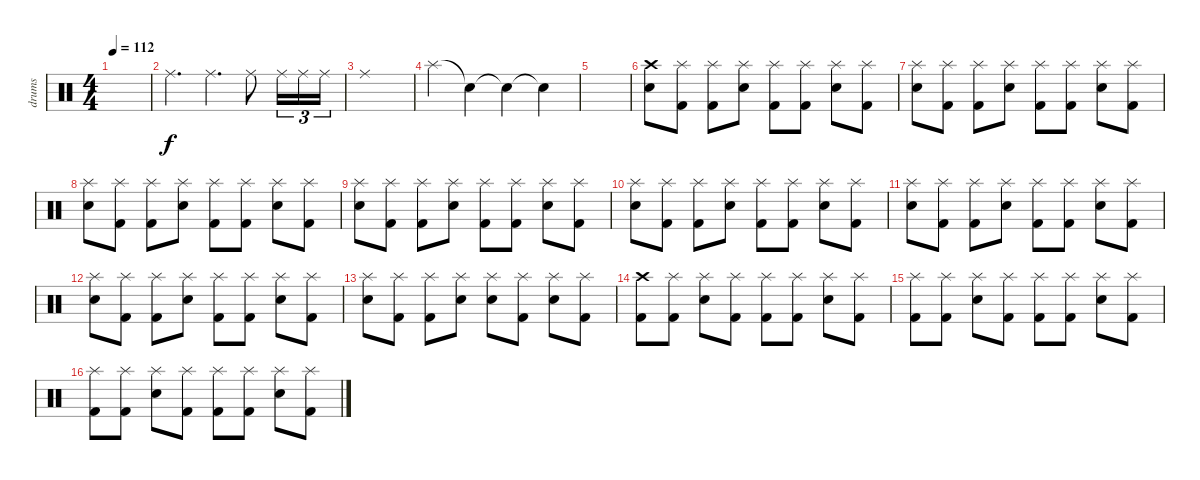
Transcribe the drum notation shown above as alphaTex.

\track ("drums" "drums") {instrument percussion}
\staff {score}
\articulation defaults
\ts (4 4)
\tempo 112
\clef neutral
\ks c
|
"Ride (middle)".4{d} "Ride (middle)".4{d} "Ride (middle)".8 "Ride (middle)".16{tu (3 2)} "Ride (middle)".16{tu (3 2)} "Ride (middle)".16{tu (3 2)} |
"Ride (middle)".1 |
"Splash (hit)".4 "Snare (hit)"{t}.4 "Snare (hit)"{t}.4 "Snare (hit)"{t}.4 |
|
("Crash high (hit)" "Snare (hit) 2").8{volume 10} ("Splash (hit)" "Kick (hit) 2").8 ("Splash (hit)" "Kick (hit) 2").8 ("Splash (hit)" "Snare (hit) 2").8 ("Splash (hit)" "Kick (hit) 2").8 ("Splash (hit)" "Kick (hit) 2").8 ("Splash (hit)" "Snare (hit) 2").8 ("Splash (hit)" "Kick (hit) 2").8 |
("Splash (hit)" "Snare (hit) 2").8 ("Splash (hit)" "Kick (hit) 2").8 ("Splash (hit)" "Kick (hit) 2").8 ("Splash (hit)" "Snare (hit) 2").8 ("Splash (hit)" "Kick (hit) 2").8 ("Splash (hit)" "Kick (hit) 2").8 ("Splash (hit)" "Snare (hit) 2").8 ("Splash (hit)" "Kick (hit) 2").8 |
("Splash (hit)" "Snare (hit) 2").8 ("Splash (hit)" "Kick (hit) 2").8 ("Splash (hit)" "Kick (hit) 2").8 ("Splash (hit)" "Snare (hit) 2").8 ("Splash (hit)" "Kick (hit) 2").8 ("Splash (hit)" "Kick (hit) 2").8 ("Splash (hit)" "Snare (hit) 2").8 ("Splash (hit)" "Kick (hit) 2").8 |
("Splash (hit)" "Snare (hit) 2").8 ("Splash (hit)" "Kick (hit) 2").8 ("Splash (hit)" "Kick (hit) 2").8 ("Splash (hit)" "Snare (hit) 2").8 ("Splash (hit)" "Kick (hit) 2").8 ("Splash (hit)" "Kick (hit) 2").8 ("Splash (hit)" "Snare (hit) 2").8 ("Splash (hit)" "Kick (hit) 2").8 |
("Splash (hit)" "Snare (hit) 2").8 ("Splash (hit)" "Kick (hit) 2").8 ("Splash (hit)" "Kick (hit) 2").8 ("Splash (hit)" "Snare (hit) 2").8 ("Splash (hit)" "Kick (hit) 2").8 ("Splash (hit)" "Kick (hit) 2").8 ("Splash (hit)" "Snare (hit) 2").8 ("Splash (hit)" "Kick (hit) 2").8 |
("Splash (hit)" "Snare (hit) 2").8 ("Splash (hit)" "Kick (hit) 2").8 ("Splash (hit)" "Kick (hit) 2").8 ("Splash (hit)" "Snare (hit) 2").8 ("Splash (hit)" "Kick (hit) 2").8 ("Splash (hit)" "Kick (hit) 2").8 ("Splash (hit)" "Snare (hit) 2").8 ("Splash (hit)" "Kick (hit) 2").8 |
("Splash (hit)" "Snare (hit) 2").8 ("Splash (hit)" "Kick (hit) 2").8 ("Splash (hit)" "Kick (hit) 2").8 ("Splash (hit)" "Snare (hit) 2").8 ("Splash (hit)" "Kick (hit) 2").8 ("Splash (hit)" "Kick (hit) 2").8 ("Splash (hit)" "Snare (hit) 2").8 ("Splash (hit)" "Kick (hit) 2").8 |
("Splash (hit)" "Snare (hit) 2").8 ("Splash (hit)" "Kick (hit) 2").8 ("Splash (hit)" "Kick (hit) 2").8 ("Splash (hit)" "Snare (hit) 2").8 ("Splash (hit)" "Snare (hit) 2").8 ("Splash (hit)" "Kick (hit) 2").8 ("Splash (hit)" "Snare (hit) 2").8 ("Splash (hit)" "Kick (hit) 2").8 |
("Crash high (hit)" "Kick (hit) 2").8 ("Splash (hit)" "Kick (hit) 2").8 ("Splash (hit)" "Snare (hit) 2").8 ("Splash (hit)" "Kick (hit) 2").8 ("Splash (hit)" "Kick (hit) 2").8 ("Splash (hit)" "Kick (hit) 2").8 ("Splash (hit)" "Snare (hit) 2").8 ("Splash (hit)" "Kick (hit) 2").8 |
("Splash (hit)" "Kick (hit) 2").8 ("Splash (hit)" "Kick (hit) 2").8 ("Splash (hit)" "Snare (hit) 2").8 ("Splash (hit)" "Kick (hit) 2").8 ("Splash (hit)" "Kick (hit) 2").8 ("Splash (hit)" "Kick (hit) 2").8 ("Splash (hit)" "Snare (hit) 2").8 ("Splash (hit)" "Kick (hit) 2").8 |
("Splash (hit)" "Kick (hit) 2").8 ("Splash (hit)" "Kick (hit) 2").8 ("Splash (hit)" "Snare (hit) 2").8 ("Splash (hit)" "Kick (hit) 2").8 ("Splash (hit)" "Kick (hit) 2").8 ("Splash (hit)" "Kick (hit) 2").8 ("Splash (hit)" "Snare (hit) 2").8 ("Splash (hit)" "Kick (hit) 2").8
